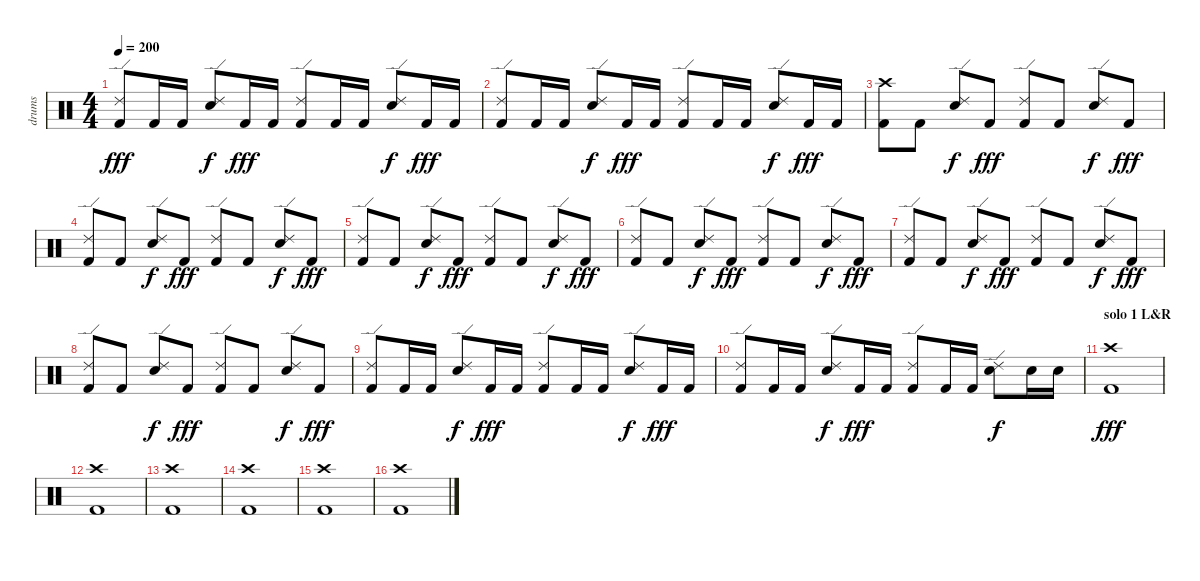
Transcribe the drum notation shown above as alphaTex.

\track ("drums" "drums") {instrument percussion}
\staff {score}
\articulation defaults
\ts (4 4)
\tempo 200
\clef neutral
\ks c
("Ride (edge) 2" "Kick (hit) 2").8{dy fff} "Kick (hit) 2".16 "Kick (hit) 2".16 ("Ride (edge) 2" "Snare (hit) 2").8{dy f} "Kick (hit) 2".16{dy fff} "Kick (hit) 2".16 ("Ride (edge) 2" "Kick (hit) 2").8 "Kick (hit) 2".16 "Kick (hit) 2".16 ("Ride (edge) 2" "Snare (hit) 2").8{dy f} "Kick (hit) 2".16{dy fff} "Kick (hit) 2".16 |
("Ride (edge) 2" "Kick (hit) 2").8 "Kick (hit) 2".16 "Kick (hit) 2".16 ("Ride (edge) 2" "Snare (hit) 2").8{dy f} "Kick (hit) 2".16{dy fff} "Kick (hit) 2".16 ("Ride (edge) 2" "Kick (hit) 2").8 "Kick (hit) 2".16 "Kick (hit) 2".16 ("Ride (edge) 2" "Snare (hit) 2").8{dy f} "Kick (hit) 2".16{dy fff} "Kick (hit) 2".16 |
("Crash high (hit)" "Kick (hit) 2").8 "Kick (hit) 2".8 ("Ride (edge) 2" "Snare (hit) 2").8{dy f} "Kick (hit) 2".8{dy fff} ("Ride (edge) 2" "Kick (hit) 2").8 "Kick (hit) 2".8 ("Ride (edge) 2" "Snare (hit) 2").8{dy f} "Kick (hit) 2".8{dy fff} |
("Ride (edge) 2" "Kick (hit) 2").8 "Kick (hit) 2".8 ("Ride (edge) 2" "Snare (hit) 2").8{dy f} "Kick (hit) 2".8{dy fff} ("Ride (edge) 2" "Kick (hit) 2").8 "Kick (hit) 2".8 ("Ride (edge) 2" "Snare (hit) 2").8{dy f} "Kick (hit) 2".8{dy fff} |
("Ride (edge) 2" "Kick (hit) 2").8 "Kick (hit) 2".8 ("Ride (edge) 2" "Snare (hit) 2").8{dy f} "Kick (hit) 2".8{dy fff} ("Ride (edge) 2" "Kick (hit) 2").8 "Kick (hit) 2".8 ("Ride (edge) 2" "Snare (hit) 2").8{dy f} "Kick (hit) 2".8{dy fff} |
("Ride (edge) 2" "Kick (hit) 2").8 "Kick (hit) 2".8 ("Ride (edge) 2" "Snare (hit) 2").8{dy f} "Kick (hit) 2".8{dy fff} ("Ride (edge) 2" "Kick (hit) 2").8 "Kick (hit) 2".8 ("Ride (edge) 2" "Snare (hit) 2").8{dy f} "Kick (hit) 2".8{dy fff} |
("Ride (edge) 2" "Kick (hit) 2").8 "Kick (hit) 2".8 ("Ride (edge) 2" "Snare (hit) 2").8{dy f} "Kick (hit) 2".8{dy fff} ("Ride (edge) 2" "Kick (hit) 2").8 "Kick (hit) 2".8 ("Ride (edge) 2" "Snare (hit) 2").8{dy f} "Kick (hit) 2".8{dy fff} |
("Ride (edge) 2" "Kick (hit) 2").8 "Kick (hit) 2".8 ("Ride (edge) 2" "Snare (hit) 2").8{dy f} "Kick (hit) 2".8{dy fff} ("Ride (edge) 2" "Kick (hit) 2").8 "Kick (hit) 2".8 ("Ride (edge) 2" "Snare (hit) 2").8{dy f} "Kick (hit) 2".8{dy fff} |
("Ride (edge) 2" "Kick (hit) 2").8 "Kick (hit) 2".16 "Kick (hit) 2".16 ("Ride (edge) 2" "Snare (hit) 2").8{dy f} "Kick (hit) 2".16{dy fff} "Kick (hit) 2".16 ("Ride (edge) 2" "Kick (hit) 2").8 "Kick (hit) 2".16 "Kick (hit) 2".16 ("Ride (edge) 2" "Snare (hit) 2").8{dy f} "Kick (hit) 2".16{dy fff} "Kick (hit) 2".16 |
("Ride (edge) 2" "Kick (hit) 2").8 "Kick (hit) 2".16 "Kick (hit) 2".16 ("Ride (edge) 2" "Snare (hit) 2").8{dy f} "Kick (hit) 2".16{dy fff} "Kick (hit) 2".16 ("Ride (edge) 2" "Kick (hit) 2").8 "Kick (hit) 2".16 "Kick (hit) 2".16 ("Ride (edge) 2" "Snare (hit) 2").8{dy f} "Snare (hit) 2".16 "Snare (hit) 2".16 |
\section ("" "solo 1 L&R")
("Crash high (hit)" "Kick (hit) 2").1{dy fff} |
("Crash high (hit)" "Kick (hit) 2").1 |
("Crash high (hit)" "Kick (hit) 2").1 |
("Crash high (hit)" "Kick (hit) 2").1 |
("Crash high (hit)" "Kick (hit) 2").1 |
("Crash high (hit)" "Kick (hit) 2").1
